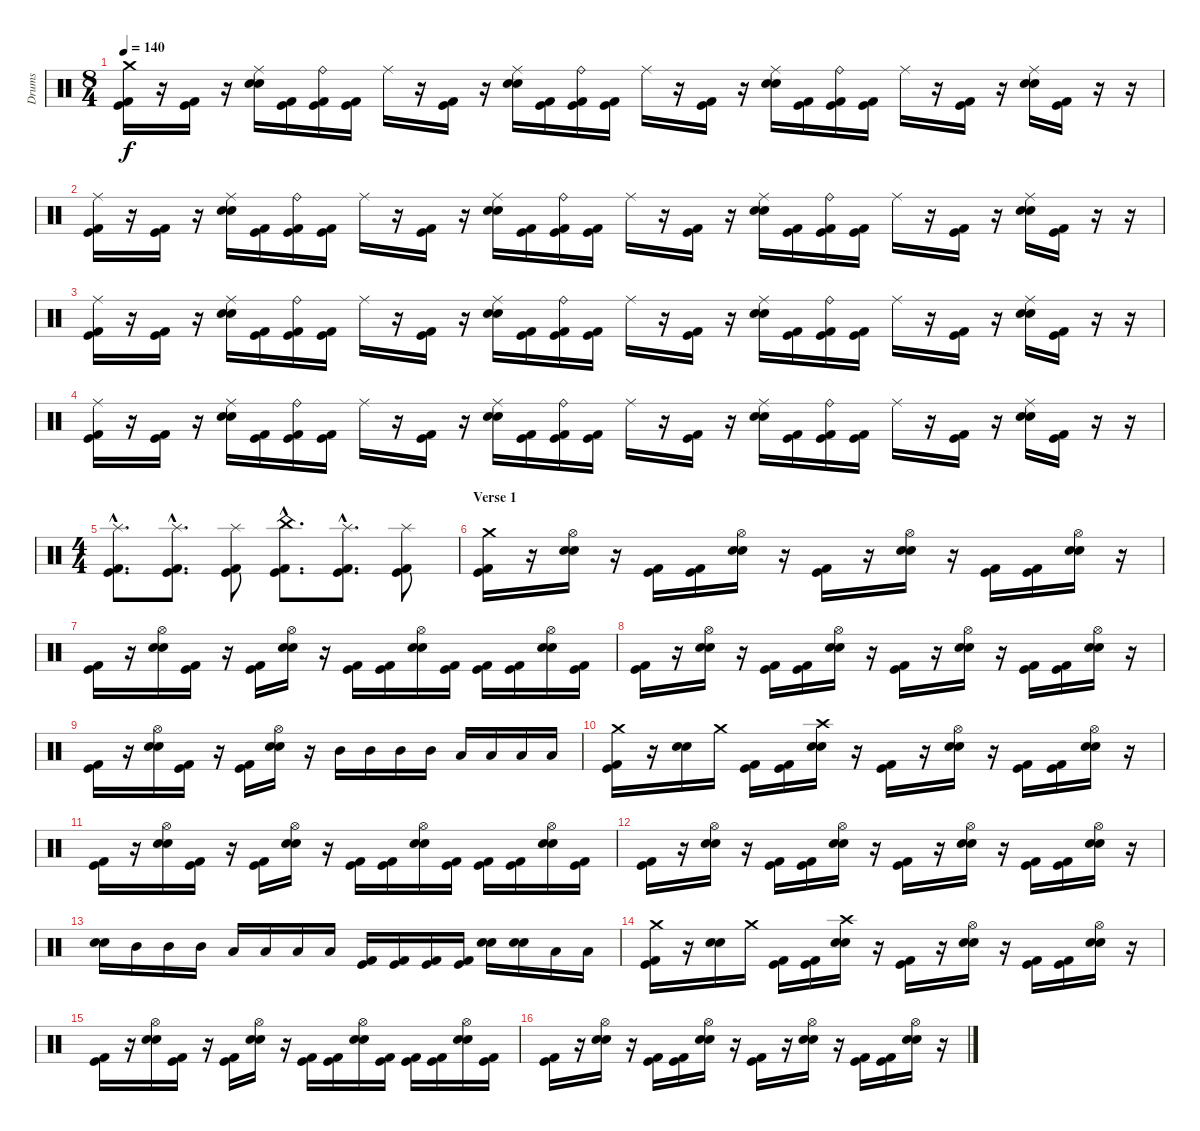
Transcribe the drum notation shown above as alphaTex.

\track ("Drums" "Drums") {instrument percussion}
\staff {score}
\articulation defaults
\ts (8 4)
\tempo 140
\clef neutral
\ks c
("Crash medium (hit)" "Kick (hit) 2" "Kick (hit)").16{dy f} r.16 ("Kick (hit) 2" "Kick (hit)").16 r.16 ("Ride (middle)" "Snare (hit) 2" "Electric Snare (hit)").16 ("Kick (hit) 2" "Kick (hit)").16 ("Ride (bell)" "Kick (hit) 2" "Kick (hit)").16 ("Kick (hit) 2" "Kick (hit)").16 "Ride (middle)".16 r.16 ("Kick (hit) 2" "Kick (hit)").16 r.16 ("Ride (middle)" "Snare (hit) 2" "Electric Snare (hit)").16 ("Kick (hit) 2" "Kick (hit)").16 ("Ride (bell)" "Kick (hit) 2" "Kick (hit)").16 ("Kick (hit) 2" "Kick (hit)").16 "Ride (middle)".16 r.16 ("Kick (hit) 2" "Kick (hit)").16 r.16 ("Ride (middle)" "Snare (hit) 2" "Electric Snare (hit)").16 ("Kick (hit) 2" "Kick (hit)").16 ("Ride (bell)" "Kick (hit) 2" "Kick (hit)").16 ("Kick (hit) 2" "Kick (hit)").16 "Ride (middle)".16 r.16 ("Kick (hit) 2" "Kick (hit)").16 r.16 ("Ride (middle)" "Snare (hit) 2" "Electric Snare (hit)").16 ("Kick (hit) 2" "Kick (hit)").16 r.16 r.16 |
("Ride (middle)" "Kick (hit) 2" "Kick (hit)").16 r.16 ("Kick (hit) 2" "Kick (hit)").16 r.16 ("Ride (middle)" "Snare (hit) 2" "Electric Snare (hit)").16 ("Kick (hit) 2" "Kick (hit)").16 ("Ride (bell)" "Kick (hit) 2" "Kick (hit)").16 ("Kick (hit) 2" "Kick (hit)").16 "Ride (middle)".16 r.16 ("Kick (hit) 2" "Kick (hit)").16 r.16 ("Ride (middle)" "Snare (hit) 2" "Electric Snare (hit)").16 ("Kick (hit) 2" "Kick (hit)").16 ("Ride (bell)" "Kick (hit) 2" "Kick (hit)").16 ("Kick (hit) 2" "Kick (hit)").16 "Ride (middle)".16 r.16 ("Kick (hit) 2" "Kick (hit)").16 r.16 ("Ride (middle)" "Snare (hit) 2" "Electric Snare (hit)").16 ("Kick (hit) 2" "Kick (hit)").16 ("Ride (bell)" "Kick (hit) 2" "Kick (hit)").16 ("Kick (hit) 2" "Kick (hit)").16 "Ride (middle)".16 r.16 ("Kick (hit) 2" "Kick (hit)").16 r.16 ("Ride (middle)" "Snare (hit) 2" "Electric Snare (hit)").16 ("Kick (hit) 2" "Kick (hit)").16 r.16 r.16 |
("Ride (middle)" "Kick (hit) 2" "Kick (hit)").16 r.16 ("Kick (hit) 2" "Kick (hit)").16 r.16 ("Ride (middle)" "Snare (hit) 2" "Electric Snare (hit)").16 ("Kick (hit) 2" "Kick (hit)").16 ("Ride (bell)" "Kick (hit) 2" "Kick (hit)").16 ("Kick (hit) 2" "Kick (hit)").16 "Ride (middle)".16 r.16 ("Kick (hit) 2" "Kick (hit)").16 r.16 ("Ride (middle)" "Snare (hit) 2" "Electric Snare (hit)").16 ("Kick (hit) 2" "Kick (hit)").16 ("Ride (bell)" "Kick (hit) 2" "Kick (hit)").16 ("Kick (hit) 2" "Kick (hit)").16 "Ride (middle)".16 r.16 ("Kick (hit) 2" "Kick (hit)").16 r.16 ("Ride (middle)" "Snare (hit) 2" "Electric Snare (hit)").16 ("Kick (hit) 2" "Kick (hit)").16 ("Ride (bell)" "Kick (hit) 2" "Kick (hit)").16 ("Kick (hit) 2" "Kick (hit)").16 "Ride (middle)".16 r.16 ("Kick (hit) 2" "Kick (hit)").16 r.16 ("Ride (middle)" "Snare (hit) 2" "Electric Snare (hit)").16 ("Kick (hit) 2" "Kick (hit)").16 r.16 r.16 |
("Ride (middle)" "Kick (hit) 2" "Kick (hit)").16 r.16 ("Kick (hit) 2" "Kick (hit)").16 r.16 ("Ride (middle)" "Snare (hit) 2" "Electric Snare (hit)").16 ("Kick (hit) 2" "Kick (hit)").16 ("Ride (bell)" "Kick (hit) 2" "Kick (hit)").16 ("Kick (hit) 2" "Kick (hit)").16 "Ride (middle)".16 r.16 ("Kick (hit) 2" "Kick (hit)").16 r.16 ("Ride (middle)" "Snare (hit) 2" "Electric Snare (hit)").16 ("Kick (hit) 2" "Kick (hit)").16 ("Ride (bell)" "Kick (hit) 2" "Kick (hit)").16 ("Kick (hit) 2" "Kick (hit)").16 "Ride (middle)".16 r.16 ("Kick (hit) 2" "Kick (hit)").16 r.16 ("Ride (middle)" "Snare (hit) 2" "Electric Snare (hit)").16 ("Kick (hit) 2" "Kick (hit)").16 ("Ride (bell)" "Kick (hit) 2" "Kick (hit)").16 ("Kick (hit) 2" "Kick (hit)").16 "Ride (middle)".16 r.16 ("Kick (hit) 2" "Kick (hit)").16 r.16 ("Ride (middle)" "Snare (hit) 2" "Electric Snare (hit)").16 ("Kick (hit) 2" "Kick (hit)").16 r.16 r.16 |
\ts (4 4)
("Splash (hit)"{hac} "Kick (hit) 2"{hac} "Kick (hit)"{hac}).8{d} ("Splash (hit)"{hac} "Kick (hit) 2"{hac} "Kick (hit)"{hac}).8{d} ("Splash (hit)" "Kick (hit) 2" "Kick (hit)").8 ("China (hit)"{hac} "Kick (hit) 2"{hac} "Kick (hit)"{hac}).8{d} ("Splash (hit)"{hac} "Kick (hit) 2"{hac} "Kick (hit)"{hac}).8{d} ("Splash (hit)" "Kick (hit) 2" "Kick (hit)").8 |
\section ("" "Verse 1")
("Crash medium (hit)" "Kick (hit) 2" "Kick (hit)").16 r.16 ("Hi-Hat (open)" "Snare (hit) 2" "Electric Snare (hit)").16 r.16 ("Kick (hit) 2" "Kick (hit)").16 ("Kick (hit) 2" "Kick (hit)").16 ("Hi-Hat (open)" "Snare (hit) 2" "Electric Snare (hit)").16 r.16 ("Kick (hit) 2" "Kick (hit)").16 r.16 ("Hi-Hat (open)" "Snare (hit) 2" "Electric Snare (hit)").16 r.16 ("Kick (hit) 2" "Kick (hit)").16 ("Kick (hit) 2" "Kick (hit)").16 ("Hi-Hat (open)" "Snare (hit) 2" "Electric Snare (hit)").16 r.16 |
("Kick (hit) 2" "Kick (hit)").16 r.16 ("Hi-Hat (open)" "Snare (hit) 2" "Electric Snare (hit)").16 ("Kick (hit) 2" "Kick (hit)").16 r.16 ("Kick (hit) 2" "Kick (hit)").16 ("Hi-Hat (open)" "Snare (hit) 2" "Electric Snare (hit)").16 r.16 ("Kick (hit) 2" "Kick (hit)").16 ("Kick (hit) 2" "Kick (hit)").16 ("Hi-Hat (open)" "Snare (hit) 2" "Electric Snare (hit)").16 ("Kick (hit) 2" "Kick (hit)").16 ("Kick (hit) 2" "Kick (hit)").16 ("Kick (hit) 2" "Kick (hit)").16 ("Hi-Hat (open)" "Snare (hit) 2" "Electric Snare (hit)").16 ("Kick (hit) 2" "Kick (hit)").16 |
("Kick (hit) 2" "Kick (hit)").16 r.16 ("Hi-Hat (open)" "Snare (hit) 2" "Electric Snare (hit)").16 r.16 ("Kick (hit) 2" "Kick (hit)").16 ("Kick (hit) 2" "Kick (hit)").16 ("Hi-Hat (open)" "Snare (hit) 2" "Electric Snare (hit)").16 r.16 ("Kick (hit) 2" "Kick (hit)").16 r.16 ("Hi-Hat (open)" "Snare (hit) 2" "Electric Snare (hit)").16 r.16 ("Kick (hit) 2" "Kick (hit)").16 ("Kick (hit) 2" "Kick (hit)").16 ("Hi-Hat (open)" "Snare (hit) 2" "Electric Snare (hit)").16 r.16 |
("Kick (hit) 2" "Kick (hit)").16 r.16 ("Hi-Hat (open)" "Snare (hit) 2" "Electric Snare (hit)").16 ("Kick (hit) 2" "Kick (hit)").16 r.16 ("Kick (hit) 2" "Kick (hit)").16 ("Hi-Hat (open)" "Snare (hit) 2" "Electric Snare (hit)").16 r.16 "Mid Tom (hit)".16 "Mid Tom (hit)".16 "Mid Tom (hit)".16 "Mid Tom (hit)".16 "Low Tom (hit)".16 "Low Tom (hit)".16 "Low Tom (hit)".16 "Low Tom (hit)".16 |
("Crash medium (hit)" "Kick (hit) 2" "Kick (hit)").16 r.16 ("Snare (hit) 2" "Electric Snare (hit)").16 "Crash medium (hit)".16 ("Kick (hit) 2" "Kick (hit)").16 ("Kick (hit) 2" "Kick (hit)").16 ("Crash high (hit)" "Snare (hit) 2" "Electric Snare (hit)").16 r.16 ("Kick (hit) 2" "Kick (hit)").16 r.16 ("Hi-Hat (open)" "Snare (hit) 2" "Electric Snare (hit)").16 r.16 ("Kick (hit) 2" "Kick (hit)").16 ("Kick (hit) 2" "Kick (hit)").16 ("Hi-Hat (open)" "Snare (hit) 2" "Electric Snare (hit)").16 r.16 |
("Kick (hit) 2" "Kick (hit)").16 r.16 ("Hi-Hat (open)" "Snare (hit) 2" "Electric Snare (hit)").16 ("Kick (hit) 2" "Kick (hit)").16 r.16 ("Kick (hit) 2" "Kick (hit)").16 ("Hi-Hat (open)" "Snare (hit) 2" "Electric Snare (hit)").16 r.16 ("Kick (hit) 2" "Kick (hit)").16 ("Kick (hit) 2" "Kick (hit)").16 ("Hi-Hat (open)" "Snare (hit) 2" "Electric Snare (hit)").16 ("Kick (hit) 2" "Kick (hit)").16 ("Kick (hit) 2" "Kick (hit)").16 ("Kick (hit) 2" "Kick (hit)").16 ("Hi-Hat (open)" "Snare (hit) 2" "Electric Snare (hit)").16 ("Kick (hit) 2" "Kick (hit)").16 |
("Kick (hit) 2" "Kick (hit)").16 r.16 ("Hi-Hat (open)" "Snare (hit) 2" "Electric Snare (hit)").16 r.16 ("Kick (hit) 2" "Kick (hit)").16 ("Kick (hit) 2" "Kick (hit)").16 ("Hi-Hat (open)" "Snare (hit) 2" "Electric Snare (hit)").16 r.16 ("Kick (hit) 2" "Kick (hit)").16 r.16 ("Hi-Hat (open)" "Snare (hit) 2" "Electric Snare (hit)").16 r.16 ("Kick (hit) 2" "Kick (hit)").16 ("Kick (hit) 2" "Kick (hit)").16 ("Hi-Hat (open)" "Snare (hit) 2" "Electric Snare (hit)").16 r.16 |
("Snare (hit) 2" "Electric Snare (hit)").16 "Mid Tom (hit)".16 "Mid Tom (hit)".16 "Mid Tom (hit)".16 "Low Tom (hit)".16 "Low Tom (hit)".16 "Low Tom (hit)".16 "Low Tom (hit)".16 ("Kick (hit) 2" "Kick (hit)").16 ("Kick (hit) 2" "Kick (hit)").16 ("Kick (hit) 2" "Kick (hit)").16 ("Kick (hit) 2" "Kick (hit)").16 ("Snare (hit) 2" "Electric Snare (hit)").16 ("Snare (hit) 2" "Electric Snare (hit)").16 "Low Tom (hit)".16 "Low Tom (hit)".16 |
("Crash medium (hit)" "Kick (hit) 2" "Kick (hit)").16 r.16 ("Snare (hit) 2" "Electric Snare (hit)").16 "Crash medium (hit)".16 ("Kick (hit) 2" "Kick (hit)").16 ("Kick (hit) 2" "Kick (hit)").16 ("Crash high (hit)" "Snare (hit) 2" "Electric Snare (hit)").16 r.16 ("Kick (hit) 2" "Kick (hit)").16 r.16 ("Hi-Hat (open)" "Snare (hit) 2" "Electric Snare (hit)").16 r.16 ("Kick (hit) 2" "Kick (hit)").16 ("Kick (hit) 2" "Kick (hit)").16 ("Hi-Hat (open)" "Snare (hit) 2" "Electric Snare (hit)").16 r.16 |
("Kick (hit) 2" "Kick (hit)").16 r.16 ("Hi-Hat (open)" "Snare (hit) 2" "Electric Snare (hit)").16 ("Kick (hit) 2" "Kick (hit)").16 r.16 ("Kick (hit) 2" "Kick (hit)").16 ("Hi-Hat (open)" "Snare (hit) 2" "Electric Snare (hit)").16 r.16 ("Kick (hit) 2" "Kick (hit)").16 ("Kick (hit) 2" "Kick (hit)").16 ("Hi-Hat (open)" "Snare (hit) 2" "Electric Snare (hit)").16 ("Kick (hit) 2" "Kick (hit)").16 ("Kick (hit) 2" "Kick (hit)").16 ("Kick (hit) 2" "Kick (hit)").16 ("Hi-Hat (open)" "Snare (hit) 2" "Electric Snare (hit)").16 ("Kick (hit) 2" "Kick (hit)").16 |
("Kick (hit) 2" "Kick (hit)").16 r.16 ("Hi-Hat (open)" "Snare (hit) 2" "Electric Snare (hit)").16 r.16 ("Kick (hit) 2" "Kick (hit)").16 ("Kick (hit) 2" "Kick (hit)").16 ("Hi-Hat (open)" "Snare (hit) 2" "Electric Snare (hit)").16 r.16 ("Kick (hit) 2" "Kick (hit)").16 r.16 ("Hi-Hat (open)" "Snare (hit) 2" "Electric Snare (hit)").16 r.16 ("Kick (hit) 2" "Kick (hit)").16 ("Kick (hit) 2" "Kick (hit)").16 ("Hi-Hat (open)" "Snare (hit) 2" "Electric Snare (hit)").16 r.16
